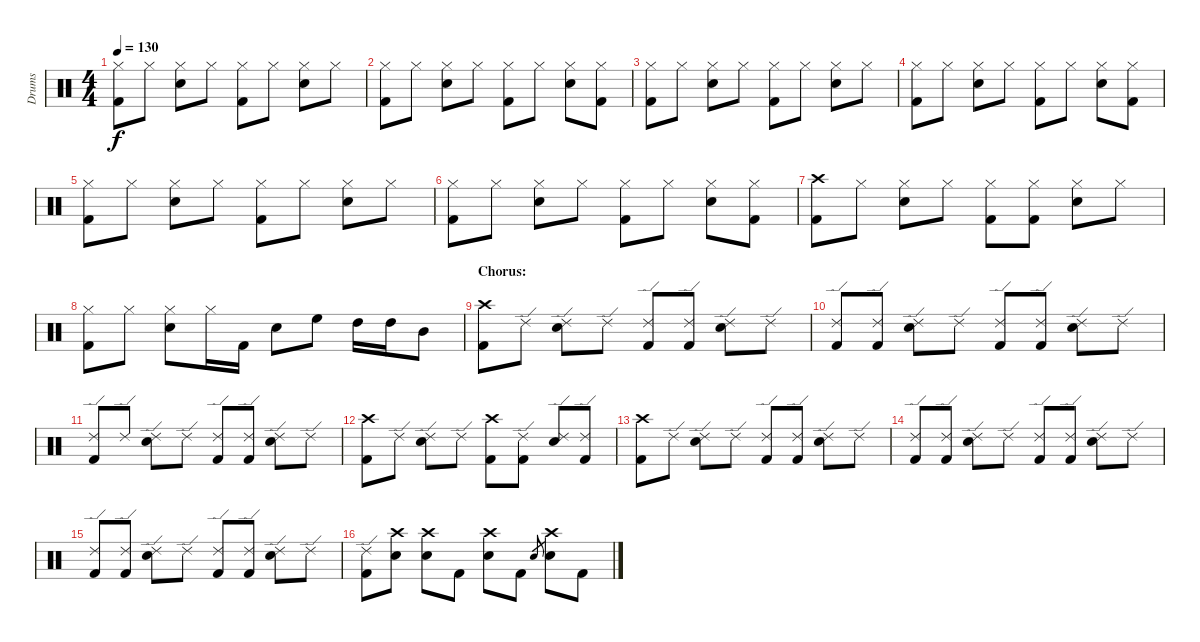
\track ("Drums" "Drums") {instrument percussion}
\staff {score}
\articulation defaults
\ts (4 4)
\tempo 130
\clef neutral
\ks c
("Hi-Hat (closed)" "Kick (hit) 2").8{dy f} "Hi-Hat (closed)".8 ("Hi-Hat (closed)" "Electric Snare (hit)").8 "Hi-Hat (closed)".8 ("Hi-Hat (closed)" "Kick (hit) 2").8 "Hi-Hat (closed)".8 ("Hi-Hat (closed)" "Electric Snare (hit)").8 "Hi-Hat (closed)".8 |
("Hi-Hat (closed)" "Kick (hit) 2").8 "Hi-Hat (closed)".8 ("Hi-Hat (closed)" "Electric Snare (hit)").8 "Hi-Hat (closed)".8 ("Hi-Hat (closed)" "Kick (hit) 2").8 "Hi-Hat (closed)".8 ("Hi-Hat (closed)" "Electric Snare (hit)").8 ("Hi-Hat (closed)" "Kick (hit) 2").8 |
("Hi-Hat (closed)" "Kick (hit) 2").8 "Hi-Hat (closed)".8 ("Hi-Hat (closed)" "Electric Snare (hit)").8 "Hi-Hat (closed)".8 ("Hi-Hat (closed)" "Kick (hit) 2").8 "Hi-Hat (closed)".8 ("Hi-Hat (closed)" "Electric Snare (hit)").8 "Hi-Hat (closed)".8 |
("Hi-Hat (closed)" "Kick (hit) 2").8 "Hi-Hat (closed)".8 ("Hi-Hat (closed)" "Electric Snare (hit)").8 "Hi-Hat (closed)".8 ("Hi-Hat (closed)" "Kick (hit) 2").8 "Hi-Hat (closed)".8 ("Hi-Hat (closed)" "Electric Snare (hit)").8 ("Hi-Hat (closed)" "Kick (hit) 2").8 |
("Hi-Hat (closed)" "Kick (hit) 2").8 "Hi-Hat (closed)".8 ("Hi-Hat (closed)" "Electric Snare (hit)").8 "Hi-Hat (closed)".8 ("Hi-Hat (closed)" "Kick (hit) 2").8 "Hi-Hat (closed)".8 ("Hi-Hat (closed)" "Electric Snare (hit)").8 "Hi-Hat (closed)".8 |
("Hi-Hat (closed)" "Kick (hit) 2").8 "Hi-Hat (closed)".8 ("Hi-Hat (closed)" "Electric Snare (hit)").8 "Hi-Hat (closed)".8 ("Hi-Hat (closed)" "Kick (hit) 2").8 "Hi-Hat (closed)".8 ("Hi-Hat (closed)" "Electric Snare (hit)").8 ("Hi-Hat (closed)" "Kick (hit) 2").8 |
("Crash high (hit)" "Kick (hit) 2").8 "Hi-Hat (closed)".8 ("Hi-Hat (closed)" "Electric Snare (hit)").8 "Hi-Hat (closed)".8 ("Hi-Hat (closed)" "Kick (hit) 2").8 ("Hi-Hat (closed)" "Kick (hit) 2").8 ("Hi-Hat (closed)" "Electric Snare (hit)").8 "Hi-Hat (closed)".8 |
("Hi-Hat (closed)" "Kick (hit) 2").8 "Hi-Hat (closed)".8 ("Hi-Hat (closed)" "Electric Snare (hit)").8 "Hi-Hat (closed)".16 "Kick (hit) 2".16 "Electric Snare (hit)".8 "High Floor Tom (hit)".8 "High Tom (hit)".16 "High Tom (hit)".16 "Mid Tom (hit)".8 |
\section ("" "Chorus:")
("Crash high (hit)" "Kick (hit) 2").8 "Ride (edge) 2".8 ("Ride (edge) 2" "Electric Snare (hit)").8 "Ride (edge) 2".8 ("Ride (edge) 2" "Kick (hit) 2").8 ("Ride (edge) 2" "Kick (hit) 2").8 ("Ride (edge) 2" "Electric Snare (hit)").8 "Ride (edge) 2".8 |
("Ride (edge) 2" "Kick (hit) 2").8 ("Ride (edge) 2" "Kick (hit) 2").8 ("Ride (edge) 2" "Electric Snare (hit)").8 "Ride (edge) 2".8 ("Ride (edge) 2" "Kick (hit) 2").8 ("Ride (edge) 2" "Kick (hit) 2").8 ("Ride (edge) 2" "Electric Snare (hit)").8 "Ride (edge) 2".8 |
("Ride (edge) 2" "Kick (hit) 2").8 "Ride (edge) 2".8 ("Ride (edge) 2" "Electric Snare (hit)").8 "Ride (edge) 2".8 ("Ride (edge) 2" "Kick (hit) 2").8 ("Ride (edge) 2" "Kick (hit) 2").8 ("Ride (edge) 2" "Electric Snare (hit)").8 "Ride (edge) 2".8 |
("Crash high (hit)" "Kick (hit) 2").8 "Ride (edge) 2".8 ("Ride (edge) 2" "Electric Snare (hit)").8 "Ride (edge) 2".8 ("Crash high (hit)" "Kick (hit) 2").8 ("Ride (edge) 2" "Kick (hit) 2").8 ("Ride (edge) 2" "Electric Snare (hit)").8 ("Ride (edge) 2" "Kick (hit) 2").8 |
("Crash high (hit)" "Kick (hit) 2").8 "Ride (edge) 2".8 ("Ride (edge) 2" "Electric Snare (hit)").8 "Ride (edge) 2".8 ("Ride (edge) 2" "Kick (hit) 2").8 ("Ride (edge) 2" "Kick (hit) 2").8 ("Ride (edge) 2" "Electric Snare (hit)").8 "Ride (edge) 2".8 |
("Ride (edge) 2" "Kick (hit) 2").8 ("Ride (edge) 2" "Kick (hit) 2").8 ("Ride (edge) 2" "Electric Snare (hit)").8 "Ride (edge) 2".8 ("Ride (edge) 2" "Kick (hit) 2").8 ("Ride (edge) 2" "Kick (hit) 2").8 ("Ride (edge) 2" "Electric Snare (hit)").8 "Ride (edge) 2".8 |
("Ride (edge) 2" "Kick (hit) 2").8 ("Ride (edge) 2" "Kick (hit) 2").8 ("Ride (edge) 2" "Electric Snare (hit)").8 "Ride (edge) 2".8 ("Ride (edge) 2" "Kick (hit) 2").8 ("Ride (edge) 2" "Kick (hit) 2").8 ("Ride (edge) 2" "Electric Snare (hit)").8 "Ride (edge) 2".8 |
("Ride (edge) 2" "Kick (hit) 2").8 ("Crash high (hit)" "Electric Snare (hit)").8 ("Crash high (hit)" "Electric Snare (hit)").8 "Kick (hit) 2".8 ("Crash high (hit)" "Electric Snare (hit)").8 "Kick (hit) 2".8 "Electric Snare (hit)".8{gr} ("Crash high (hit)" "Electric Snare (hit)").8 "Kick (hit) 2".8
